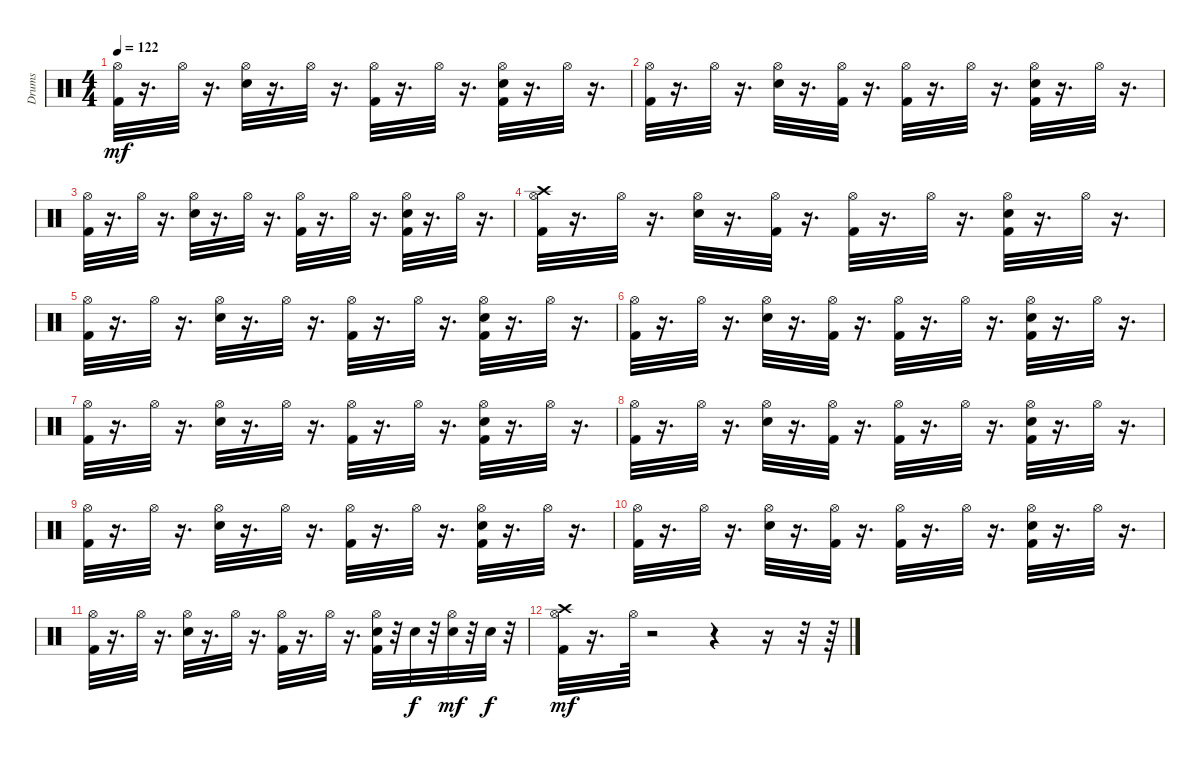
\track ("Drums" "Drums") {instrument percussion}
\staff {score}
\articulation defaults
\ts (4 4)
\tempo 122
\clef neutral
\ks c
("Kick (hit) 2" "Hi-Hat (open)").32{dy mf} r.16{d} "Hi-Hat (open)".32 r.16{d} ("Snare (hit) 2" "Hi-Hat (open)").32 r.16{d} "Hi-Hat (open)".32 r.16{d} ("Kick (hit) 2" "Hi-Hat (open)").32 r.16{d} "Hi-Hat (open)".32 r.16{d} ("Kick (hit) 2" "Snare (hit) 2" "Hi-Hat (open)").32 r.16{d} "Hi-Hat (open)".32 r.16{d} |
("Kick (hit) 2" "Hi-Hat (open)").32 r.16{d} "Hi-Hat (open)".32 r.16{d} ("Snare (hit) 2" "Hi-Hat (open)").32 r.16{d} ("Kick (hit) 2" "Hi-Hat (open)").32 r.16{d} ("Kick (hit) 2" "Hi-Hat (open)").32 r.16{d} "Hi-Hat (open)".32 r.16{d} ("Kick (hit) 2" "Snare (hit) 2" "Hi-Hat (open)").32 r.16{d} "Hi-Hat (open)".32 r.16{d} |
("Kick (hit) 2" "Hi-Hat (open)").32 r.16{d} "Hi-Hat (open)".32 r.16{d} ("Snare (hit) 2" "Hi-Hat (open)").32 r.16{d} "Hi-Hat (open)".32 r.16{d} ("Kick (hit) 2" "Hi-Hat (open)").32 r.16{d} "Hi-Hat (open)".32 r.16{d} ("Kick (hit) 2" "Snare (hit) 2" "Hi-Hat (open)").32 r.16{d} "Hi-Hat (open)".32 r.16{d} |
("Kick (hit) 2" "Hi-Hat (open)" "Crash high (hit)").32 r.16{d} "Hi-Hat (open)".32 r.16{d} ("Snare (hit) 2" "Hi-Hat (open)").32 r.16{d} ("Kick (hit) 2" "Hi-Hat (open)").32 r.16{d} ("Kick (hit) 2" "Hi-Hat (open)").32 r.16{d} "Hi-Hat (open)".32 r.16{d} ("Kick (hit) 2" "Snare (hit) 2" "Hi-Hat (open)").32 r.16{d} "Hi-Hat (open)".32 r.16{d} |
("Kick (hit) 2" "Hi-Hat (open)").32 r.16{d} "Hi-Hat (open)".32 r.16{d} ("Snare (hit) 2" "Hi-Hat (open)").32 r.16{d} "Hi-Hat (open)".32 r.16{d} ("Kick (hit) 2" "Hi-Hat (open)").32 r.16{d} "Hi-Hat (open)".32 r.16{d} ("Kick (hit) 2" "Snare (hit) 2" "Hi-Hat (open)").32 r.16{d} "Hi-Hat (open)".32 r.16{d} |
("Kick (hit) 2" "Hi-Hat (open)").32 r.16{d} "Hi-Hat (open)".32 r.16{d} ("Snare (hit) 2" "Hi-Hat (open)").32 r.16{d} ("Kick (hit) 2" "Hi-Hat (open)").32 r.16{d} ("Kick (hit) 2" "Hi-Hat (open)").32 r.16{d} "Hi-Hat (open)".32 r.16{d} ("Kick (hit) 2" "Snare (hit) 2" "Hi-Hat (open)").32 r.16{d} "Hi-Hat (open)".32 r.16{d} |
("Kick (hit) 2" "Hi-Hat (open)").32 r.16{d} "Hi-Hat (open)".32 r.16{d} ("Snare (hit) 2" "Hi-Hat (open)").32 r.16{d} "Hi-Hat (open)".32 r.16{d} ("Kick (hit) 2" "Hi-Hat (open)").32 r.16{d} "Hi-Hat (open)".32 r.16{d} ("Kick (hit) 2" "Snare (hit) 2" "Hi-Hat (open)").32 r.16{d} "Hi-Hat (open)".32 r.16{d} |
("Kick (hit) 2" "Hi-Hat (open)").32 r.16{d} "Hi-Hat (open)".32 r.16{d} ("Snare (hit) 2" "Hi-Hat (open)").32 r.16{d} ("Kick (hit) 2" "Hi-Hat (open)").32 r.16{d} ("Kick (hit) 2" "Hi-Hat (open)").32 r.16{d} "Hi-Hat (open)".32 r.16{d} ("Kick (hit) 2" "Snare (hit) 2" "Hi-Hat (open)").32 r.16{d} "Hi-Hat (open)".32 r.16{d} |
("Kick (hit) 2" "Hi-Hat (open)").32 r.16{d} "Hi-Hat (open)".32 r.16{d} ("Snare (hit) 2" "Hi-Hat (open)").32 r.16{d} "Hi-Hat (open)".32 r.16{d} ("Kick (hit) 2" "Hi-Hat (open)").32 r.16{d} "Hi-Hat (open)".32 r.16{d} ("Kick (hit) 2" "Snare (hit) 2" "Hi-Hat (open)").32 r.16{d} "Hi-Hat (open)".32 r.16{d} |
("Kick (hit) 2" "Hi-Hat (open)").32 r.16{d} "Hi-Hat (open)".32 r.16{d} ("Snare (hit) 2" "Hi-Hat (open)").32 r.16{d} ("Kick (hit) 2" "Hi-Hat (open)").32 r.16{d} ("Kick (hit) 2" "Hi-Hat (open)").32 r.16{d} "Hi-Hat (open)".32 r.16{d} ("Kick (hit) 2" "Snare (hit) 2" "Hi-Hat (open)").32 r.16{d} "Hi-Hat (open)".32 r.16{d} |
("Kick (hit) 2" "Hi-Hat (open)").32 r.16{d} "Hi-Hat (open)".32 r.16{d} ("Snare (hit) 2" "Hi-Hat (open)").32 r.16{d} "Hi-Hat (open)".32 r.16{d} ("Kick (hit) 2" "Hi-Hat (open)").32 r.16{d} "Hi-Hat (open)".32 r.16{d} ("Kick (hit) 2" "Snare (hit) 2" "Hi-Hat (open)").32 r.32 "Snare (hit) 2".32{dy f} r.32 ("Snare (hit) 2" "Hi-Hat (open)").32{dy mf} r.32 "Snare (hit) 2".32{dy f} r.32 |
("Kick (hit) 2" "Hi-Hat (open)" "Crash high (hit)").32{dy mf} r.16{d} "Hi-Hat (open)".64 r.2 r.4 r.16 r.32 r.64
